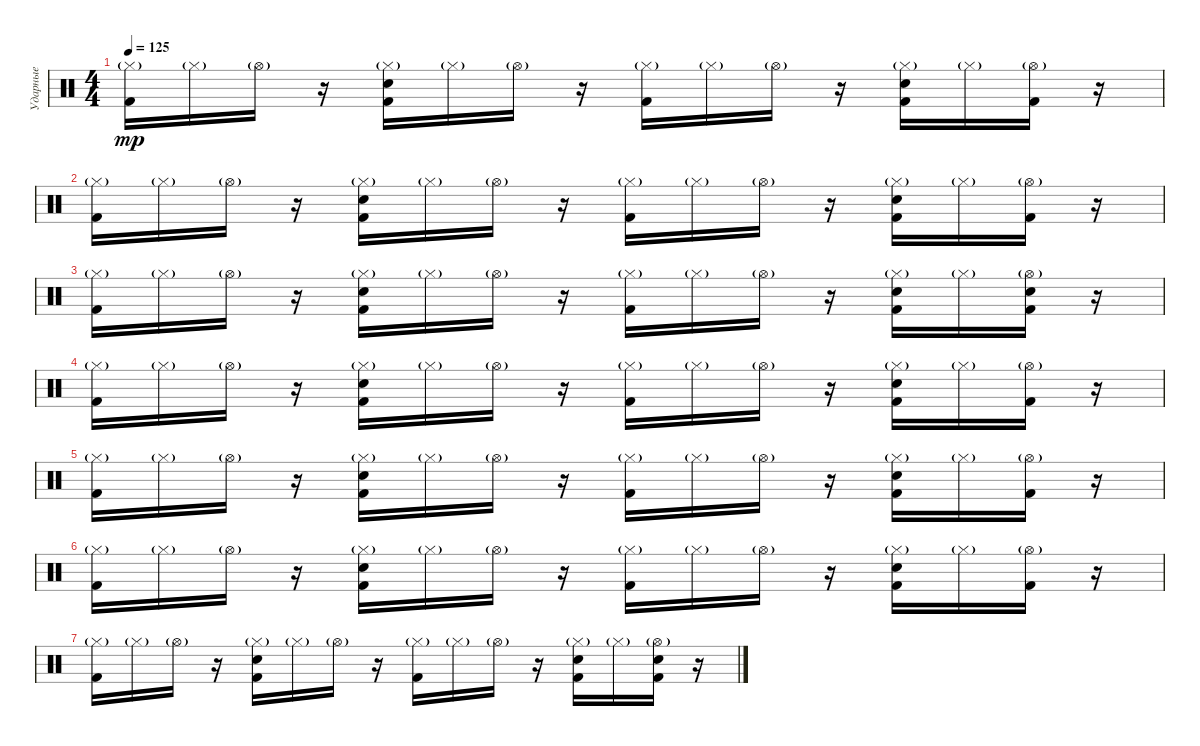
\track ("Ударные" "Ударные") {instrument percussion}
\staff {score}
\articulation defaults
\ts (4 4)
\tempo 125
\clef neutral
\ks c
("Hi-Hat (closed)"{g} "Kick (hit) 2").16{dy mp} "Hi-Hat (closed)"{g}.16 "Hi-Hat (open)"{g}.16 r.16 ("Snare (hit) 2" "Hi-Hat (closed)"{g} "Kick (hit) 2").16 "Hi-Hat (closed)"{g}.16 "Hi-Hat (open)"{g}.16 r.16 ("Hi-Hat (closed)"{g} "Kick (hit) 2").16 "Hi-Hat (closed)"{g}.16 "Hi-Hat (open)"{g}.16 r.16 ("Snare (hit) 2" "Hi-Hat (closed)"{g} "Kick (hit) 2").16 "Hi-Hat (closed)"{g}.16 ("Hi-Hat (open)"{g} "Kick (hit) 2").16 r.16 |
("Hi-Hat (closed)"{g} "Kick (hit) 2").16 "Hi-Hat (closed)"{g}.16 "Hi-Hat (open)"{g}.16 r.16 ("Snare (hit) 2" "Hi-Hat (closed)"{g} "Kick (hit) 2").16 "Hi-Hat (closed)"{g}.16 "Hi-Hat (open)"{g}.16 r.16 ("Hi-Hat (closed)"{g} "Kick (hit) 2").16 "Hi-Hat (closed)"{g}.16 "Hi-Hat (open)"{g}.16 r.16 ("Snare (hit) 2" "Hi-Hat (closed)"{g} "Kick (hit) 2").16 "Hi-Hat (closed)"{g}.16 ("Hi-Hat (open)"{g} "Kick (hit) 2").16 r.16 |
("Hi-Hat (closed)"{g} "Kick (hit) 2").16 "Hi-Hat (closed)"{g}.16 "Hi-Hat (open)"{g}.16 r.16 ("Snare (hit) 2" "Hi-Hat (closed)"{g} "Kick (hit) 2").16 "Hi-Hat (closed)"{g}.16 "Hi-Hat (open)"{g}.16 r.16 ("Hi-Hat (closed)"{g} "Kick (hit) 2").16 "Hi-Hat (closed)"{g}.16 "Hi-Hat (open)"{g}.16 r.16 ("Snare (hit) 2" "Hi-Hat (closed)"{g} "Kick (hit) 2").16 "Hi-Hat (closed)"{g}.16 ("Snare (hit) 2" "Hi-Hat (open)"{g} "Kick (hit) 2").16 r.16 |
("Hi-Hat (closed)"{g} "Kick (hit) 2").16 "Hi-Hat (closed)"{g}.16 "Hi-Hat (open)"{g}.16 r.16 ("Snare (hit) 2" "Hi-Hat (closed)"{g} "Kick (hit) 2").16 "Hi-Hat (closed)"{g}.16 "Hi-Hat (open)"{g}.16 r.16 ("Hi-Hat (closed)"{g} "Kick (hit) 2").16 "Hi-Hat (closed)"{g}.16 "Hi-Hat (open)"{g}.16 r.16 ("Snare (hit) 2" "Hi-Hat (closed)"{g} "Kick (hit) 2").16 "Hi-Hat (closed)"{g}.16 ("Hi-Hat (open)"{g} "Kick (hit) 2").16 r.16 |
("Hi-Hat (closed)"{g} "Kick (hit) 2").16 "Hi-Hat (closed)"{g}.16 "Hi-Hat (open)"{g}.16 r.16 ("Snare (hit) 2" "Hi-Hat (closed)"{g} "Kick (hit) 2").16 "Hi-Hat (closed)"{g}.16 "Hi-Hat (open)"{g}.16 r.16 ("Hi-Hat (closed)"{g} "Kick (hit) 2").16 "Hi-Hat (closed)"{g}.16 "Hi-Hat (open)"{g}.16 r.16 ("Snare (hit) 2" "Hi-Hat (closed)"{g} "Kick (hit) 2").16 "Hi-Hat (closed)"{g}.16 ("Hi-Hat (open)"{g} "Kick (hit) 2").16 r.16 |
("Hi-Hat (closed)"{g} "Kick (hit) 2").16 "Hi-Hat (closed)"{g}.16 "Hi-Hat (open)"{g}.16 r.16 ("Snare (hit) 2" "Hi-Hat (closed)"{g} "Kick (hit) 2").16 "Hi-Hat (closed)"{g}.16 "Hi-Hat (open)"{g}.16 r.16 ("Hi-Hat (closed)"{g} "Kick (hit) 2").16 "Hi-Hat (closed)"{g}.16 "Hi-Hat (open)"{g}.16 r.16 ("Snare (hit) 2" "Hi-Hat (closed)"{g} "Kick (hit) 2").16 "Hi-Hat (closed)"{g}.16 ("Hi-Hat (open)"{g} "Kick (hit) 2").16 r.16 |
("Hi-Hat (closed)"{g} "Kick (hit) 2").16 "Hi-Hat (closed)"{g}.16 "Hi-Hat (open)"{g}.16 r.16 ("Snare (hit) 2" "Hi-Hat (closed)"{g} "Kick (hit) 2").16 "Hi-Hat (closed)"{g}.16 "Hi-Hat (open)"{g}.16 r.16 ("Hi-Hat (closed)"{g} "Kick (hit) 2").16 "Hi-Hat (closed)"{g}.16 "Hi-Hat (open)"{g}.16 r.16 ("Snare (hit) 2" "Hi-Hat (closed)"{g} "Kick (hit) 2").16 "Hi-Hat (closed)"{g}.16 ("Snare (hit) 2" "Hi-Hat (open)"{g} "Kick (hit) 2").16 r.16
